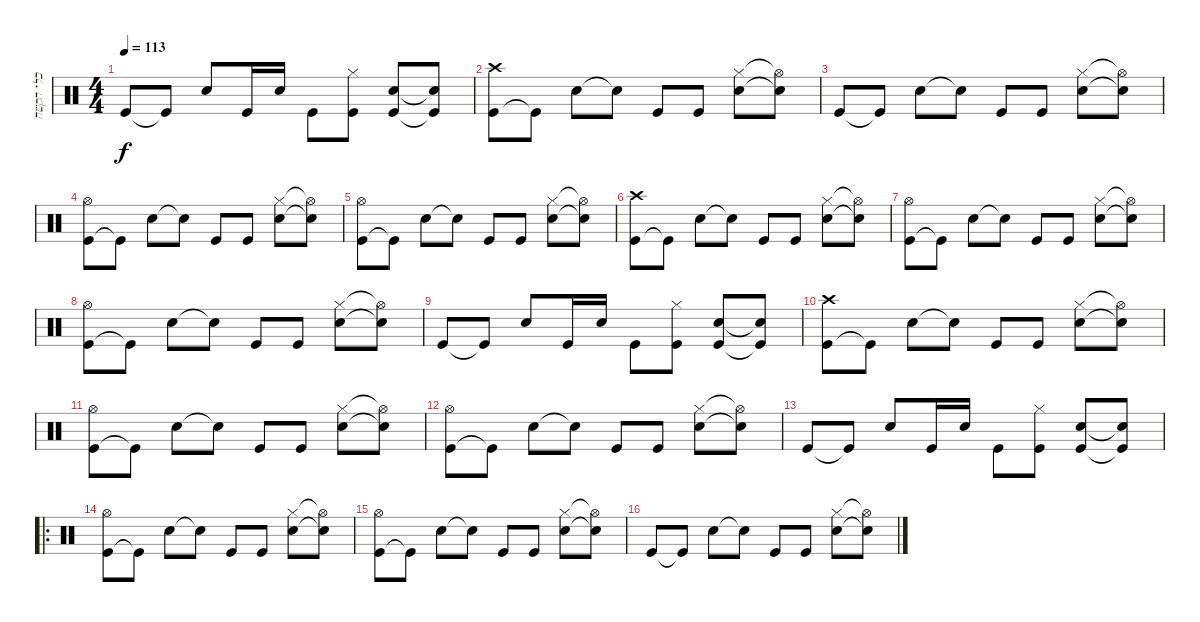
\track ("כלי הקשה" "כלי הקשה") {instrument percussion}
\staff {score}
\articulation defaults
\ts (4 4)
\tempo 113
\clef neutral
\ks c "Kick (hit)".8{dy f} "Kick (hit)"{t}.8 "Electric Snare (hit)".8 "Kick (hit)".16 "Electric Snare (hit)".16 "Kick (hit)".8
("Kick (hit)" "Hi-Hat (closed)").8 ("Snare (hit) 2" "Kick (hit)").8 ("Snare (hit) 2"{t} "Kick (hit)"{t}).8 |
("Kick (hit)" "Crash high (hit)").8 "Kick (hit)"{t}.8 "Electric Snare (hit)".8 "Snare (hit)"{t}.8 "Kick (hit)".8 "Kick (hit)".8 ("Snare (hit) 2" "Hi-Hat (closed)").8 ("Snare (hit)"{t} "Hi-Hat (open)"{t}).8 |
"Kick (hit)".8 "Kick (hit)"{t}.8 "Electric Snare (hit)".8 "Snare (hit)"{t}.8 "Kick (hit)".8 "Kick (hit)".8 ("Snare (hit) 2" "Hi-Hat (closed)").8 ("Snare (hit)"{t} "Hi-Hat (open)"{t}).8 |
("Kick (hit)" "Hi-Hat (open)").8 "Kick (hit)"{t}.8 "Electric Snare (hit)".8 "Snare (hit)"{t}.8 "Kick (hit)".8 "Kick (hit)".8 ("Snare (hit) 2" "Hi-Hat (closed)").8 ("Snare (hit)"{t} "Hi-Hat (open)"{t}).8 |
("Kick (hit)" "Hi-Hat (open)").8 "Kick (hit)"{t}.8 "Electric Snare (hit)".8 "Snare (hit)"{t}.8 "Kick (hit)".8 "Kick (hit)".8 ("Snare (hit) 2" "Hi-Hat (closed)").8 ("Snare (hit)"{t} "Hi-Hat (open)"{t}).8 |
("Kick (hit)" "Crash high (hit)").8 "Kick (hit)"{t}.8 "Electric Snare (hit)".8 "Snare (hit)"{t}.8 "Kick (hit)".8 "Kick (hit)".8 ("Snare (hit) 2" "Hi-Hat (closed)").8 ("Snare (hit)"{t} "Hi-Hat (open)"{t}).8 |
("Kick (hit)" "Hi-Hat (open)").8 "Kick (hit)"{t}.8 "Electric Snare (hit)".8 "Snare (hit)"{t}.8 "Kick (hit)".8 "Kick (hit)".8 ("Snare (hit) 2" "Hi-Hat (closed)").8 ("Snare (hit)"{t} "Hi-Hat (open)"{t}).8 |
("Kick (hit)" "Hi-Hat (open)").8 "Kick (hit)"{t}.8 "Electric Snare (hit)".8 "Snare (hit)"{t}.8 "Kick (hit)".8 "Kick (hit)".8 ("Snare (hit) 2" "Hi-Hat (closed)").8 ("Snare (hit)"{t} "Hi-Hat (open)"{t}).8 |
"Kick (hit)".8 "Kick (hit)"{t}.8 "Electric Snare (hit)".8 "Kick (hit)".16 "Electric Snare (hit)".16 "Kick (hit)".8 ("Kick (hit)" "Hi-Hat (closed)").8 ("Snare (hit) 2" "Kick (hit)").8 ("Snare (hit) 2"{t} "Kick (hit)"{t}).8 |
("Kick (hit)" "Crash high (hit)").8 "Kick (hit)"{t}.8 "Electric Snare (hit)".8 "Snare (hit)"{t}.8 "Kick (hit)".8 "Kick (hit)".8 ("Snare (hit) 2" "Hi-Hat (closed)").8 ("Snare (hit)"{t} "Hi-Hat (open)"{t}).8 |
("Kick (hit)" "Hi-Hat (open)").8 "Kick (hit)"{t}.8 "Electric Snare (hit)".8 "Snare (hit)"{t}.8 "Kick (hit)".8 "Kick (hit)".8 ("Snare (hit) 2" "Hi-Hat (closed)").8 ("Snare (hit)"{t} "Hi-Hat (open)"{t}).8 |
("Kick (hit)" "Hi-Hat (open)").8 "Kick (hit)"{t}.8 "Electric Snare (hit)".8 "Snare (hit)"{t}.8 "Kick (hit)".8 "Kick (hit)".8 ("Snare (hit) 2" "Hi-Hat (closed)").8 ("Snare (hit)"{t} "Hi-Hat (open)"{t}).8 |
"Kick (hit)".8 "Kick (hit)"{t}.8 "Electric Snare (hit)".8 "Kick (hit)".16 "Electric Snare (hit)".16 "Kick (hit)".8 ("Kick (hit)" "Hi-Hat (closed)").8 ("Snare (hit) 2" "Kick (hit)").8 ("Snare (hit) 2"{t} "Kick (hit)"{t}).8 |
\ro
("Kick (hit)" "Hi-Hat (open)").8 "Kick (hit)"{t}.8 "Electric Snare (hit)".8 "Snare (hit)"{t}.8 "Kick (hit)".8 "Kick (hit)".8 ("Snare (hit) 2" "Hi-Hat (closed)").8 ("Snare (hit)"{t} "Hi-Hat (open)"{t}).8 |
("Kick (hit)" "Hi-Hat (open)").8 "Kick (hit)"{t}.8 "Electric Snare (hit)".8 "Snare (hit)"{t}.8 "Kick (hit)".8 "Kick (hit)".8 ("Snare (hit) 2" "Hi-Hat (closed)").8 ("Snare (hit)"{t} "Hi-Hat (open)"{t}).8 |
"Kick (hit)".8 "Kick (hit)"{t}.8 "Electric Snare (hit)".8 "Snare (hit)"{t}.8 "Kick (hit)".8 "Kick (hit)".8 ("Snare (hit) 2" "Hi-Hat (closed)").8 ("Snare (hit)"{t} "Hi-Hat (open)"{t}).8
